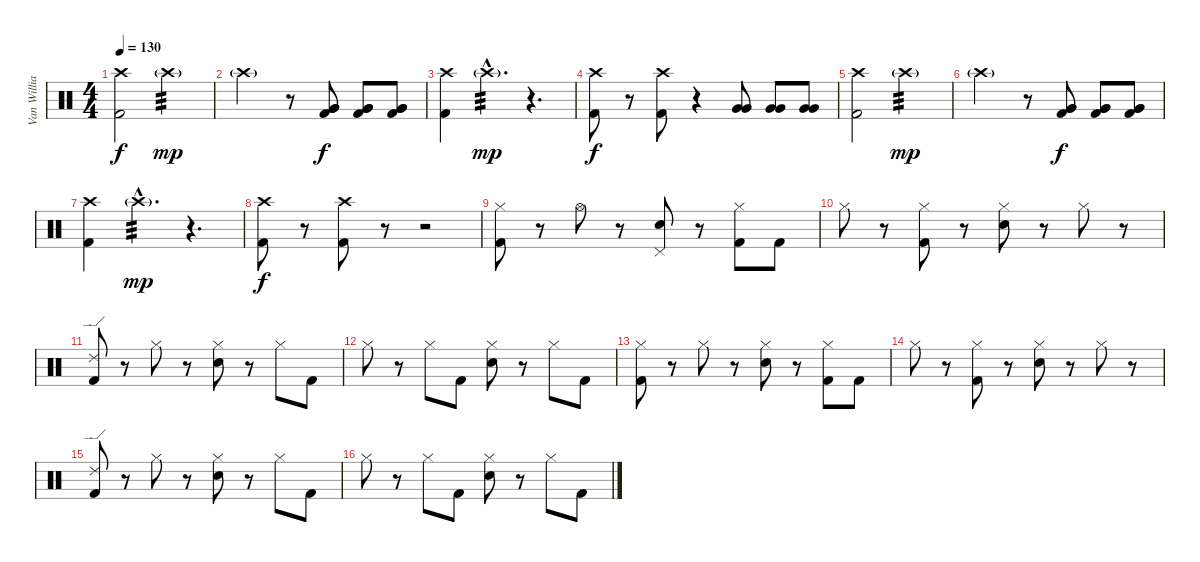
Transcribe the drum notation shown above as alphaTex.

\track ("Van Williams" "Van Willia") {instrument percussion}
\staff {score}
\articulation defaults
\ts (4 4)
\tempo 130
\clef neutral
\ks c
("Crash high (hit)" "Kick (hit) 2").2{dy f} "Crash high (hit)"{g}.2{tp 3 dy mp} |
"Crash high (hit)"{g}.2 r.8 ("Kick (hit) 2" "Very Low Tom (hit)" "Very Low Tom (hit)").8{dy f} ("Kick (hit) 2" "Very Low Tom (hit)" "Very Low Tom (hit)").8 ("Kick (hit) 2" "Very Low Tom (hit)" "Very Low Tom (hit)").8 |
("Crash high (hit)" "Kick (hit) 2").4 "Crash high (hit)"{g hac}.4{d tp 3 dy mp} r.4{d} |
("Crash high (hit)" "Kick (hit) 2").8{dy f} r.8 ("Crash high (hit)" "Kick (hit) 2").8 r.4 ("Very Low Tom (hit)" "Very Low Tom (hit)").8 ("Very Low Tom (hit)" "Very Low Tom (hit)").8 ("Very Low Tom (hit)" "Very Low Tom (hit)").8 |
("Crash high (hit)" "Kick (hit) 2").2 "Crash high (hit)"{g}.2{tp 3 dy mp} |
"Crash high (hit)"{g}.2 r.8 ("Kick (hit) 2" "Very Low Tom (hit)" "Very Low Tom (hit)").8{dy f} ("Kick (hit) 2" "Very Low Tom (hit)" "Very Low Tom (hit)").8 ("Kick (hit) 2" "Very Low Tom (hit)" "Very Low Tom (hit)").8 |
("Crash high (hit)" "Kick (hit) 2").4 "Crash high (hit)"{g hac}.4{d tp 3 dy mp} r.4{d} |
("Crash high (hit)" "Kick (hit) 2").8{dy f} r.8 ("Crash high (hit)" "Kick (hit) 2").8 r.8 r.2 |
("Hi-Hat (closed)" "Kick (hit) 2").8 r.8 "Hi-Hat (open)".8 r.8 ("Pedal Hi-Hat (hit)" "Electric Snare (hit)").8 r.8 ("Hi-Hat (closed)" "Kick (hit) 2").8 "Kick (hit) 2".8 |
"Hi-Hat (closed)".8 r.8 ("Hi-Hat (closed)" "Kick (hit) 2").8 r.8 ("Hi-Hat (closed)" "Electric Snare (hit)").8 r.8 "Hi-Hat (closed)".8 r.8 |
("Ride (edge) 2" "Kick (hit) 2").8 r.8 "Hi-Hat (closed)".8 r.8 ("Hi-Hat (closed)" "Electric Snare (hit)").8 r.8 "Hi-Hat (closed)".8 "Kick (hit) 2".8 |
"Hi-Hat (closed)".8 r.8 "Hi-Hat (closed)".8 "Kick (hit) 2".8 ("Hi-Hat (closed)" "Electric Snare (hit)").8 r.8 "Hi-Hat (closed)".8 "Kick (hit) 2".8 |
("Hi-Hat (closed)" "Kick (hit) 2").8 r.8 "Hi-Hat (closed)".8 r.8 ("Hi-Hat (closed)" "Electric Snare (hit)").8 r.8 ("Hi-Hat (closed)" "Kick (hit) 2").8 "Kick (hit) 2".8 |
"Hi-Hat (closed)".8 r.8 ("Hi-Hat (closed)" "Kick (hit) 2").8 r.8 ("Hi-Hat (closed)" "Electric Snare (hit)").8 r.8 "Hi-Hat (closed)".8 r.8 |
("Ride (edge) 2" "Kick (hit) 2").8 r.8 "Hi-Hat (closed)".8 r.8 ("Hi-Hat (closed)" "Electric Snare (hit)").8 r.8 "Hi-Hat (closed)".8 "Kick (hit) 2".8 |
"Hi-Hat (closed)".8 r.8 "Hi-Hat (closed)".8 "Kick (hit) 2".8 ("Hi-Hat (closed)" "Electric Snare (hit)").8 r.8 "Hi-Hat (closed)".8 "Kick (hit) 2".8
